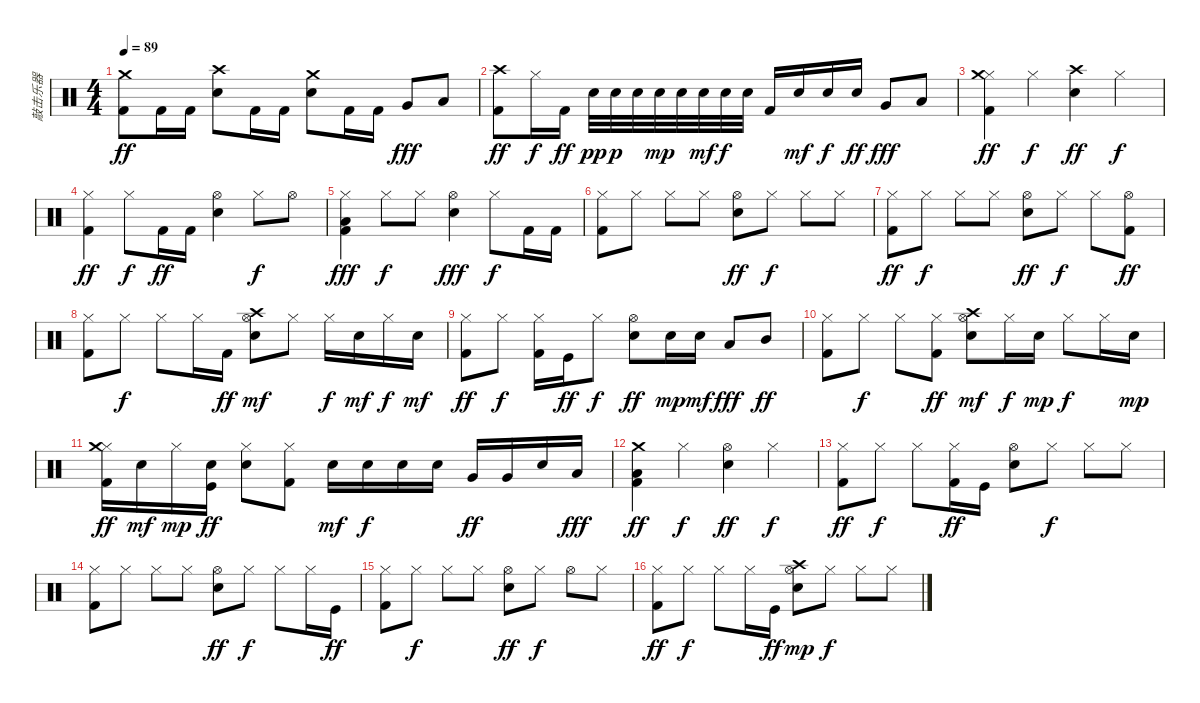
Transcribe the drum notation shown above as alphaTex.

\track ("敲击乐器" "敲击乐器") {instrument percussion}
\staff {score}
\articulation defaults
\ts (4 4)
\tempo 89
\clef neutral
\ks c
("Crash medium (hit)" "Kick (hit) 2").8{dy ff} "Kick (hit) 2".16 "Kick (hit) 2".16 ("Snare (hit) 2" "Crash high (hit)").8 "Kick (hit) 2".16 "Kick (hit) 2".16 ("Electric Snare (hit)" "Crash medium (hit)").8 "Kick (hit) 2".16 "Kick (hit) 2".16 "Very Low Tom (hit)".8{dy fff} "Low Floor Tom (hit)".8 |
("Crash high (hit)" "Kick (hit) 2").8{dy ff} "Hi-Hat (closed)".16{dy f} "Kick (hit) 2".16{dy ff} "Electric Snare (hit)".32{dy pp} "Electric Snare (hit)".32{dy p} "Electric Snare (hit)".32 "Electric Snare (hit)".32{dy mp} "Electric Snare (hit)".32 "Electric Snare (hit)".32{dy mf} "Electric Snare (hit)".32{dy f} "Electric Snare (hit)".32 "Kick (hit) 2".16 "Electric Snare (hit)".16{dy mf} "Electric Snare (hit)".16{dy f} "Electric Snare (hit)".16{dy ff} "Very Low Tom (hit)".8{dy fff} "Low Floor Tom (hit)".8 |
("Hi-Hat (closed)" "Crash medium (hit)" "Kick (hit) 2").4{dy ff} "Hi-Hat (closed)".4{dy f} ("Crash high (hit)" "Electric Snare (hit)").4{dy ff} "Hi-Hat (closed)".4{dy f} |
("Hi-Hat (closed)" "Kick (hit) 2").4{dy ff} "Hi-Hat (closed)".8{dy f} "Kick (hit) 2".16{dy ff} "Kick (hit) 2".16 ("Electric Snare (hit)" "Hi-Hat (open)").4 "Hi-Hat (closed)".8{dy f} "Hi-Hat (open)".8 |
("Hi-Hat (closed)" "Kick (hit) 2" "Low Floor Tom (hit)").4{dy fff} "Hi-Hat (closed)".8{dy f} "Hi-Hat (closed)".8 ("Hi-Hat (open)" "Electric Snare (hit)").4{dy fff} "Hi-Hat (closed)".8{dy f} "Kick (hit) 2".16 "Kick (hit) 2".16 |
("Hi-Hat (closed)" "Kick (hit) 2").8 "Hi-Hat (closed)".8 "Hi-Hat (closed)".8 "Hi-Hat (closed)".8 ("Hi-Hat (open)" "Electric Snare (hit)").8{dy ff} "Hi-Hat (closed)".8{dy f} "Hi-Hat (closed)".8 "Hi-Hat (closed)".8 |
("Hi-Hat (closed)" "Kick (hit) 2").8{dy ff} "Hi-Hat (closed)".8{dy f} "Hi-Hat (closed)".8 "Hi-Hat (closed)".8 ("Hi-Hat (open)" "Electric Snare (hit)").8{dy ff} "Hi-Hat (closed)".8{dy f} "Hi-Hat (closed)".8 ("Hi-Hat (open)" "Kick (hit) 2").8{dy ff} |
("Hi-Hat (closed)" "Kick (hit) 2").8 "Hi-Hat (closed)".8{dy f} "Hi-Hat (closed)".8 "Hi-Hat (closed)".16 "Kick (hit) 2".16{dy ff} ("Electric Snare (hit)" "Crash high (hit)" "Hi-Hat (open)").8{dy mf} "Hi-Hat (closed)".8 "Hi-Hat (closed)".16{dy f} "Electric Snare (hit)".16{dy mf} "Hi-Hat (closed)".16{dy f} "Electric Snare (hit)".16{dy mf} |
("Hi-Hat (closed)" "Kick (hit) 2").8{dy ff} "Hi-Hat (closed)".8{dy f} ("Hi-Hat (closed)" "Kick (hit) 2").16 "Kick (hit)".16{dy ff} "Hi-Hat (closed)".8{dy f} ("Electric Snare (hit)" "Hi-Hat (open)").8{dy ff} "Electric Snare (hit)".16{dy mp} "Electric Snare (hit)".16{dy mf} "Low Tom (hit)".8{dy fff} "Mid Tom (hit)".8{dy ff} |
("Hi-Hat (closed)" "Kick (hit) 2").8 "Hi-Hat (closed)".8{dy f} "Hi-Hat (closed)".8 ("Hi-Hat (closed)" "Kick (hit) 2").8{dy ff} ("Hi-Hat (open)" "Electric Snare (hit)" "Crash high (hit)").8{dy mf} "Hi-Hat (closed)".16{dy f} "Electric Snare (hit)".16{dy mp} "Hi-Hat (closed)".8{dy f} "Hi-Hat (closed)".16 "Electric Snare (hit)".16{dy mp} |
("Hi-Hat (closed)" "Crash medium (hit)" "Kick (hit) 2").16{dy ff} "Electric Snare (hit)".16{dy mf} "Hi-Hat (closed)".16{dy mp} ("Electric Snare (hit)" "Kick (hit)").16{dy ff} ("Hi-Hat (closed)" "Electric Snare (hit)").8 ("Hi-Hat (closed)" "Kick (hit) 2").8 "Electric Snare (hit)".16{dy mf} "Electric Snare (hit)".16{dy f} "Electric Snare (hit)".16 "Electric Snare (hit)".16 "Very Low Tom (hit)".16{dy ff} "Very Low Tom (hit)".16 "Electric Snare (hit)".16 "Low Floor Tom (hit)".16{dy fff} |
("Crash medium (hit)" "Low Floor Tom (hit)" "Kick (hit) 2").4{dy ff} "Hi-Hat (closed)".4{dy f} ("Hi-Hat (open)" "Electric Snare (hit)").4{dy ff} "Hi-Hat (closed)".4{dy f} |
("Hi-Hat (closed)" "Kick (hit) 2").8{dy ff} "Hi-Hat (closed)".8{dy f} "Hi-Hat (closed)".8 ("Hi-Hat (closed)" "Kick (hit) 2").16{dy ff} "Kick (hit)".16 ("Hi-Hat (open)" "Electric Snare (hit)").8 "Hi-Hat (closed)".8{dy f} "Hi-Hat (closed)".8 "Hi-Hat (closed)".8 |
("Hi-Hat (closed)" "Kick (hit) 2").8 "Hi-Hat (closed)".8 "Hi-Hat (closed)".8 "Hi-Hat (closed)".8 ("Hi-Hat (open)" "Electric Snare (hit)").8{dy ff} "Hi-Hat (closed)".8{dy f} "Hi-Hat (closed)".8 "Hi-Hat (closed)".16 "Kick (hit)".16{dy ff} |
("Hi-Hat (closed)" "Kick (hit) 2").8 "Hi-Hat (closed)".8{dy f} "Hi-Hat (closed)".8 "Hi-Hat (closed)".8 ("Hi-Hat (open)" "Electric Snare (hit)").8{dy ff} "Hi-Hat (closed)".8{dy f} "Hi-Hat (open)".8 "Hi-Hat (closed)".8 |
("Hi-Hat (closed)" "Kick (hit) 2").8{dy ff} "Hi-Hat (closed)".8{dy f} "Hi-Hat (closed)".8 "Hi-Hat (closed)".16 "Kick (hit)".16{dy ff} ("Hi-Hat (open)" "Electric Snare (hit)" "Crash high (hit)").8{dy mp} "Hi-Hat (closed)".8{dy f} "Hi-Hat (closed)".8 "Hi-Hat (closed)".8
